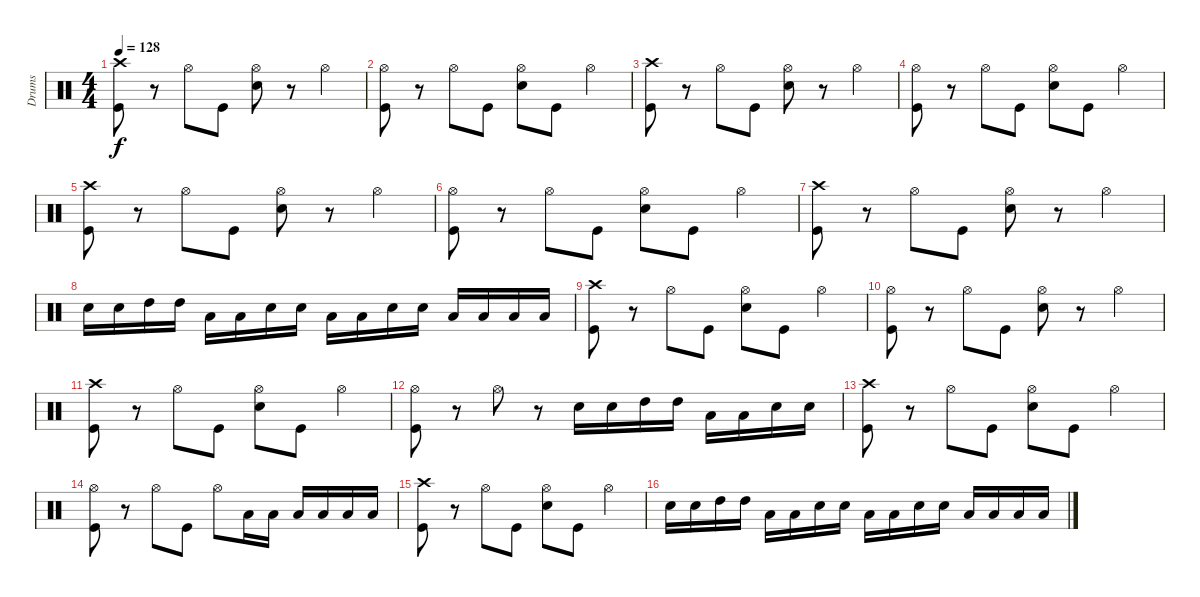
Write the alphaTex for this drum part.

\track ("Drums" "Drums") {instrument percussion}
\staff {score}
\articulation defaults
\ts (4 4)
\tempo 128
\clef neutral
\ks c
("Kick (hit)" "Crash high (hit)").8{dy f} r.8 "Hi-Hat (open)".8 "Kick (hit)".8 ("Snare (hit) 2" "Hi-Hat (open)").8 r.8 "Hi-Hat (open)".4 |
("Kick (hit)" "Hi-Hat (open)").8 r.8 "Hi-Hat (open)".8 "Kick (hit)".8 ("Snare (hit) 2" "Hi-Hat (open)").8 "Kick (hit)".8 "Hi-Hat (open)".4 |
("Kick (hit)" "Crash high (hit)").8 r.8 "Hi-Hat (open)".8 "Kick (hit)".8 ("Snare (hit) 2" "Hi-Hat (open)").8 r.8 "Hi-Hat (open)".4 |
("Kick (hit)" "Hi-Hat (open)").8 r.8 "Hi-Hat (open)".8 "Kick (hit)".8 ("Snare (hit) 2" "Hi-Hat (open)").8 "Kick (hit)".8 "Hi-Hat (open)".4 |
("Kick (hit)" "Crash high (hit)").8 r.8 "Hi-Hat (open)".8 "Kick (hit)".8 ("Snare (hit) 2" "Hi-Hat (open)").8 r.8 "Hi-Hat (open)".4 |
("Kick (hit)" "Hi-Hat (open)").8 r.8 "Hi-Hat (open)".8 "Kick (hit)".8 ("Snare (hit) 2" "Hi-Hat (open)").8 "Kick (hit)".8 "Hi-Hat (open)".4 |
("Kick (hit)" "Crash high (hit)").8 r.8 "Hi-Hat (open)".8 "Kick (hit)".8 ("Snare (hit) 2" "Hi-Hat (open)").8 r.8 "Hi-Hat (open)".4 |
"Snare (hit) 2".16 "Electric Snare (hit)".16 "High Tom (hit)".16 "High Tom (hit)".16 "Low Tom (hit)".16 "Low Tom (hit)".16 "Snare (hit) 2".16 "Electric Snare (hit)".16 "Low Tom (hit)".16 "Low Tom (hit)".16 "Snare (hit) 2".16 "Electric Snare (hit)".16 "Low Tom (hit)".16 "Low Tom (hit)".16 "Low Floor Tom (hit)".16 "Low Floor Tom (hit)".16 |
("Kick (hit)" "Crash high (hit)").8 r.8 "Hi-Hat (open)".8 "Kick (hit)".8 ("Snare (hit) 2" "Hi-Hat (open)").8 "Kick (hit)".8 "Hi-Hat (open)".4 |
("Kick (hit)" "Hi-Hat (open)").8 r.8 "Hi-Hat (open)".8 "Kick (hit)".8 ("Snare (hit) 2" "Hi-Hat (open)").8 r.8 "Hi-Hat (open)".4 |
("Kick (hit)" "Crash high (hit)").8 r.8 "Hi-Hat (open)".8 "Kick (hit)".8 ("Snare (hit) 2" "Hi-Hat (open)").8 "Kick (hit)".8 "Hi-Hat (open)".4 |
("Kick (hit)" "Hi-Hat (open)").8 r.8 "Hi-Hat (open)".8 r.8 "Snare (hit) 2".16 "Electric Snare (hit)".16 "High Tom (hit)".16 "High Tom (hit)".16 "Low Tom (hit)".16 "Low Tom (hit)".16 "Snare (hit) 2".16 "Electric Snare (hit)".16 |
("Kick (hit)" "Crash high (hit)").8 r.8 "Hi-Hat (open)".8 "Kick (hit)".8 ("Snare (hit) 2" "Hi-Hat (open)").8 "Kick (hit)".8 "Hi-Hat (open)".4 |
("Kick (hit)" "Hi-Hat (open)").8 r.8 "Hi-Hat (open)".8 "Kick (hit)".8 "Hi-Hat (open)".8 "Low Tom (hit)".16 "Low Tom (hit)".16 "Low Floor Tom (hit)".16 "Low Floor Tom (hit)".16 "Low Floor Tom (hit)".16 "Low Floor Tom (hit)".16 |
("Kick (hit)" "Crash high (hit)").8 r.8 "Hi-Hat (open)".8 "Kick (hit)".8 ("Snare (hit) 2" "Hi-Hat (open)").8 "Kick (hit)".8 "Hi-Hat (open)".4 |
"Snare (hit) 2".16 "Electric Snare (hit)".16 "High Tom (hit)".16 "High Tom (hit)".16 "Low Tom (hit)".16 "Low Tom (hit)".16 "Snare (hit) 2".16 "Electric Snare (hit)".16 "Low Tom (hit)".16 "Low Tom (hit)".16 "Snare (hit) 2".16 "Electric Snare (hit)".16 "Low Tom (hit)".16 "Low Tom (hit)".16 "Low Floor Tom (hit)".16 "Low Floor Tom (hit)".16
